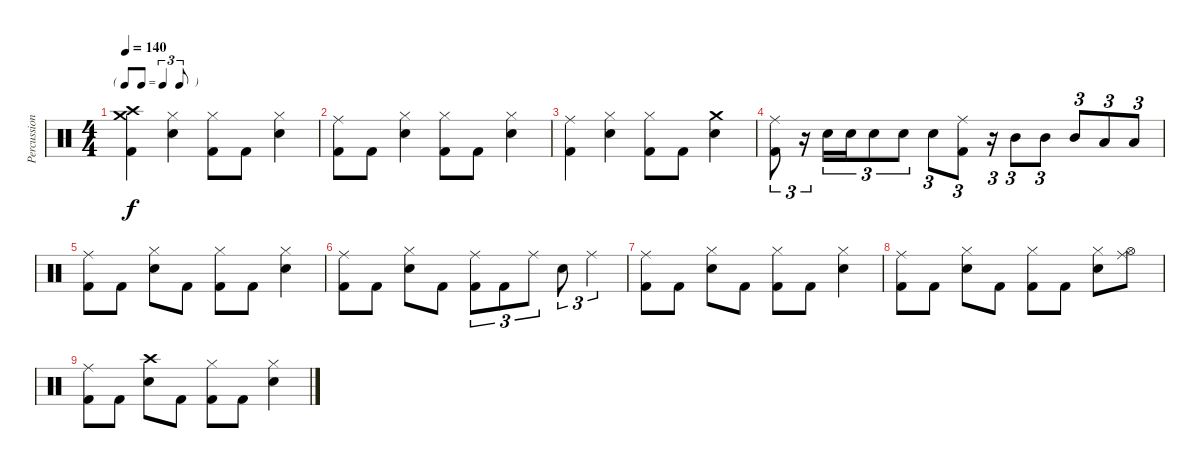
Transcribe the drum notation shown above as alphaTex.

\track ("Percussion" "Percussion") {instrument percussion}
\staff {score}
\articulation defaults
\ts (4 4)
\tf triplet8th
\tempo 140
\clef neutral
\ks c
("Kick (hit) 2" "Crash medium (hit)" "Crash high (hit)").4{dy f} ("Snare (hit) 2" "Hi-Hat (closed)").4 ("Kick (hit) 2" "Hi-Hat (closed)").8 "Kick (hit) 2".8 ("Snare (hit) 2" "Hi-Hat (closed)").4 |
("Kick (hit) 2" "Ride (middle)").8 "Kick (hit) 2".8 ("Snare (hit) 2" "Hi-Hat (closed)").4 ("Kick (hit) 2" "Hi-Hat (closed)").8 "Kick (hit) 2".8 ("Snare (hit) 2" "Hi-Hat (closed)").4 |
("Kick (hit) 2" "Ride (middle)").4 ("Snare (hit) 2" "Hi-Hat (closed)").4 ("Kick (hit) 2" "Hi-Hat (closed)").8 "Kick (hit) 2".8 ("Snare (hit) 2" "Crash medium (hit)").4 |
("Kick (hit) 2" "Ride (middle)").8{tu (3 2)} r.16{tu (3 2)} "Snare (hit) 2".16{tu (3 2)} "Snare (hit) 2".16{tu (3 2)} "Snare (hit) 2".8{tu (3 2)} "Snare (hit) 2".8{tu (3 2)} "Snare (hit) 2".8{tu (3 2)} ("Kick (hit) 2" "Ride (middle)").8{tu (3 2)} r.16{tu (3 2)} "Mid Tom (hit)".8{tu (3 2)} "Mid Tom (hit)".8{tu (3 2)} "Mid Tom (hit)".8{tu (3 2)} "Low Tom (hit)".8{tu (3 2)} "Low Tom (hit)".8{tu (3 2)} |
("Kick (hit) 2" "Ride (middle)").8 "Kick (hit) 2".8 ("Snare (hit) 2" "Hi-Hat (closed)").8 "Kick (hit) 2".8 ("Kick (hit) 2" "Hi-Hat (closed)").8 "Kick (hit) 2".8 ("Snare (hit) 2" "Hi-Hat (closed)").4 |
("Kick (hit) 2" "Ride (middle)").8 "Kick (hit) 2".8 ("Snare (hit) 2" "Hi-Hat (closed)").8 "Kick (hit) 2".8 ("Kick (hit) 2" "Ride (middle)").8{tu (3 2)} "Kick (hit) 2".8{tu (3 2)} "Ride (middle)".8{tu (3 2)} "Snare (hit) 2".8{tu (3 2)} "Ride (middle)".4{tu (3 2)} |
("Kick (hit) 2" "Ride (middle)").8 "Kick (hit) 2".8 ("Snare (hit) 2" "Hi-Hat (closed)").8 "Kick (hit) 2".8 ("Kick (hit) 2" "Hi-Hat (closed)").8 "Kick (hit) 2".8 ("Snare (hit) 2" "Hi-Hat (closed)").4 |
("Kick (hit) 2" "Ride (middle)").8 "Kick (hit) 2".8 ("Snare (hit) 2" "Hi-Hat (closed)").8 "Kick (hit) 2".8 ("Kick (hit) 2" "Hi-Hat (closed)").8 "Kick (hit) 2".8 ("Snare (hit) 2" "Hi-Hat (closed)").8 ("Hi-Hat (open)" "Ride (middle)").8 |
("Kick (hit) 2" "Ride (middle)").8 "Kick (hit) 2".8 ("Snare (hit) 2" "Crash high (hit)").8 "Kick (hit) 2".8 ("Kick (hit) 2" "Hi-Hat (closed)").8 "Kick (hit) 2".8 ("Snare (hit) 2" "Hi-Hat (closed)").4
